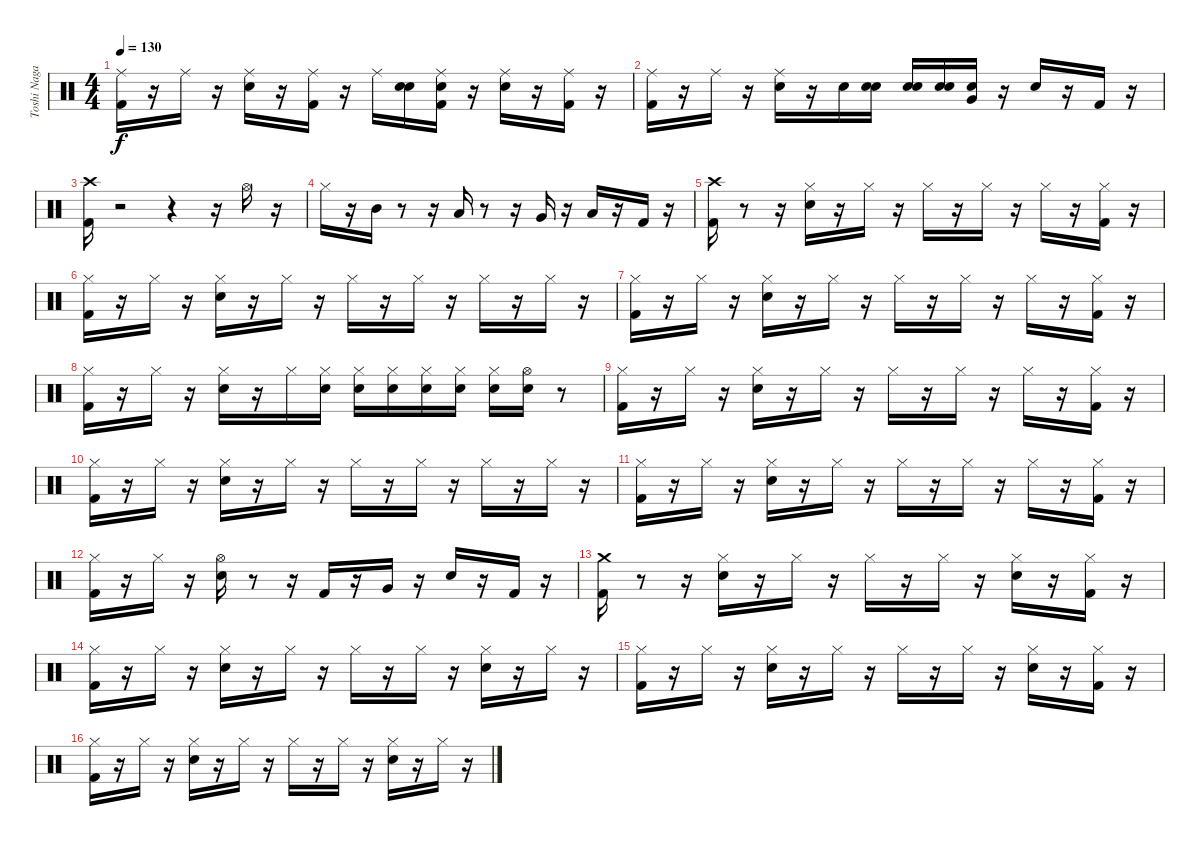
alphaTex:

\track ("Toshi Nagai" "Toshi Naga") {instrument percussion}
\staff {score}
\articulation defaults
\ts (4 4)
\tempo 130
\clef neutral
\ks c
("Kick (hit) 2" "Ride (middle)").16{dy f} r.16 "Ride (middle)".16 r.16 ("Electric Snare (hit)" "Ride (middle)").16 r.16 ("Kick (hit) 2" "Ride (middle)").16 r.16 "Ride (middle)".16 ("Snare (hit)" "Electric Snare (hit)").16 ("Snare (hit)" "Kick (hit) 2" "Ride (middle)").16 r.16 ("Electric Snare (hit)" "Ride (middle)").16 r.16 ("Kick (hit) 2" "Ride (middle)").16 r.16 |
("Kick (hit) 2" "Ride (middle)").16 r.16 "Ride (middle)".16 r.16 ("Electric Snare (hit)" "Ride (middle)").16 r.16 "Electric Snare (hit)".16 ("Snare (hit)" "Electric Snare (hit)").16 ("Snare (hit)" "Electric Snare (hit)").16 ("Snare (hit)" "Electric Snare (hit)").16 ("Snare (hit)" "Very Low Tom (hit)").16 r.16 "Electric Snare (hit)".16 r.16 "Kick (hit) 2".16 r.16 |
("Crash high (hit)" "Kick (hit) 2").16 r.2 r.4 r.16 "Hi-Hat (open)".16 r.16 |
"Hi-Hat (closed)".16 r.16 "Mid Tom (hit)".16 r.8 r.16 "Low Tom (hit)".16 r.8 r.16 "Very Low Tom (hit)".16 r.16 "Low Floor Tom (hit)".16 r.16 "Kick (hit) 2".16 r.16 |
("Crash high (hit)" "Kick (hit) 2").16 r.8 r.16 ("Electric Snare (hit)" "Hi-Hat (closed)").16 r.16 "Hi-Hat (closed)".16 r.16 "Hi-Hat (closed)".16 r.16 "Hi-Hat (closed)".16 r.16 "Hi-Hat (closed)".16 r.16 ("Kick (hit) 2" "Hi-Hat (closed)").16 r.16 |
("Kick (hit) 2" "Hi-Hat (closed)").16 r.16 "Hi-Hat (closed)".16 r.16 ("Electric Snare (hit)" "Hi-Hat (closed)").16 r.16 "Hi-Hat (closed)".16 r.16 "Hi-Hat (closed)".16 r.16 "Hi-Hat (closed)".16 r.16 "Hi-Hat (closed)".16 r.16 "Hi-Hat (closed)".16 r.16 |
("Kick (hit) 2" "Hi-Hat (closed)").16 r.16 "Hi-Hat (closed)".16 r.16 ("Electric Snare (hit)" "Hi-Hat (closed)").16 r.16 "Hi-Hat (closed)".16 r.16 "Hi-Hat (closed)".16 r.16 "Hi-Hat (closed)".16 r.16 "Hi-Hat (closed)".16 r.16 ("Kick (hit) 2" "Hi-Hat (closed)").16 r.16 |
("Kick (hit) 2" "Hi-Hat (closed)").16 r.16 "Hi-Hat (closed)".16 r.16 ("Electric Snare (hit)" "Hi-Hat (closed)").16 r.16 "Hi-Hat (closed)".16 ("Snare (hit)" "Hi-Hat (closed)").16 ("Snare (hit)" "Hi-Hat (closed)").16 ("Snare (hit)" "Hi-Hat (closed)").16 ("Snare (hit)" "Hi-Hat (closed)").16 ("Snare (hit)" "Hi-Hat (closed)").16 ("Snare (hit)" "Hi-Hat (closed)").16 ("Snare (hit)" "Hi-Hat (open)").16 r.8 |
("Kick (hit) 2" "Hi-Hat (closed)").16 r.16 "Hi-Hat (closed)".16 r.16 ("Electric Snare (hit)" "Hi-Hat (closed)").16 r.16 "Hi-Hat (closed)".16 r.16 "Hi-Hat (closed)".16 r.16 "Hi-Hat (closed)".16 r.16 "Hi-Hat (closed)".16 r.16 ("Kick (hit) 2" "Hi-Hat (closed)").16 r.16 |
("Kick (hit) 2" "Hi-Hat (closed)").16 r.16 "Hi-Hat (closed)".16 r.16 ("Electric Snare (hit)" "Hi-Hat (closed)").16 r.16 "Hi-Hat (closed)".16 r.16 "Hi-Hat (closed)".16 r.16 "Hi-Hat (closed)".16 r.16 "Hi-Hat (closed)".16 r.16 "Hi-Hat (closed)".16 r.16 |
("Kick (hit) 2" "Hi-Hat (closed)").16 r.16 "Hi-Hat (closed)".16 r.16 ("Electric Snare (hit)" "Hi-Hat (closed)").16 r.16 "Hi-Hat (closed)".16 r.16 "Hi-Hat (closed)".16 r.16 "Hi-Hat (closed)".16 r.16 "Hi-Hat (closed)".16 r.16 ("Kick (hit) 2" "Hi-Hat (closed)").16 r.16 |
("Kick (hit) 2" "Hi-Hat (closed)").16 r.16 "Hi-Hat (closed)".16 r.16 ("Electric Snare (hit)" "Hi-Hat (open)").16 r.8 r.16 "Kick (hit) 2".16 r.16 "Very Low Tom (hit)".16 r.16 "Electric Snare (hit)".16 r.16 "Kick (hit) 2".16 r.16 |
("Crash medium (hit)" "Kick (hit) 2").16 r.8 r.16 ("Electric Snare (hit)" "Hi-Hat (closed)").16 r.16 "Hi-Hat (closed)".16 r.16 "Hi-Hat (closed)".16 r.16 "Hi-Hat (closed)".16 r.16 ("Electric Snare (hit)" "Hi-Hat (closed)").16 r.16 ("Kick (hit) 2" "Hi-Hat (closed)").16 r.16 |
("Kick (hit) 2" "Hi-Hat (closed)").16 r.16 "Hi-Hat (closed)".16 r.16 ("Electric Snare (hit)" "Hi-Hat (closed)").16 r.16 "Hi-Hat (closed)".16 r.16 "Hi-Hat (closed)".16 r.16 "Hi-Hat (closed)".16 r.16 ("Electric Snare (hit)" "Hi-Hat (closed)").16 r.16 "Hi-Hat (closed)".16 r.16 |
("Kick (hit) 2" "Hi-Hat (closed)").16 r.16 "Hi-Hat (closed)".16 r.16 ("Electric Snare (hit)" "Hi-Hat (closed)").16 r.16 "Hi-Hat (closed)".16 r.16 "Hi-Hat (closed)".16 r.16 "Hi-Hat (closed)".16 r.16 ("Electric Snare (hit)" "Hi-Hat (closed)").16 r.16 ("Kick (hit) 2" "Hi-Hat (closed)").16 r.16 |
("Kick (hit) 2" "Hi-Hat (closed)").16 r.16 "Hi-Hat (closed)".16 r.16 ("Electric Snare (hit)" "Hi-Hat (closed)").16 r.16 "Hi-Hat (closed)".16 r.16 "Hi-Hat (closed)".16 r.16 "Hi-Hat (closed)".16 r.16 ("Electric Snare (hit)" "Hi-Hat (closed)").16 r.16 "Hi-Hat (closed)".16 r.16
